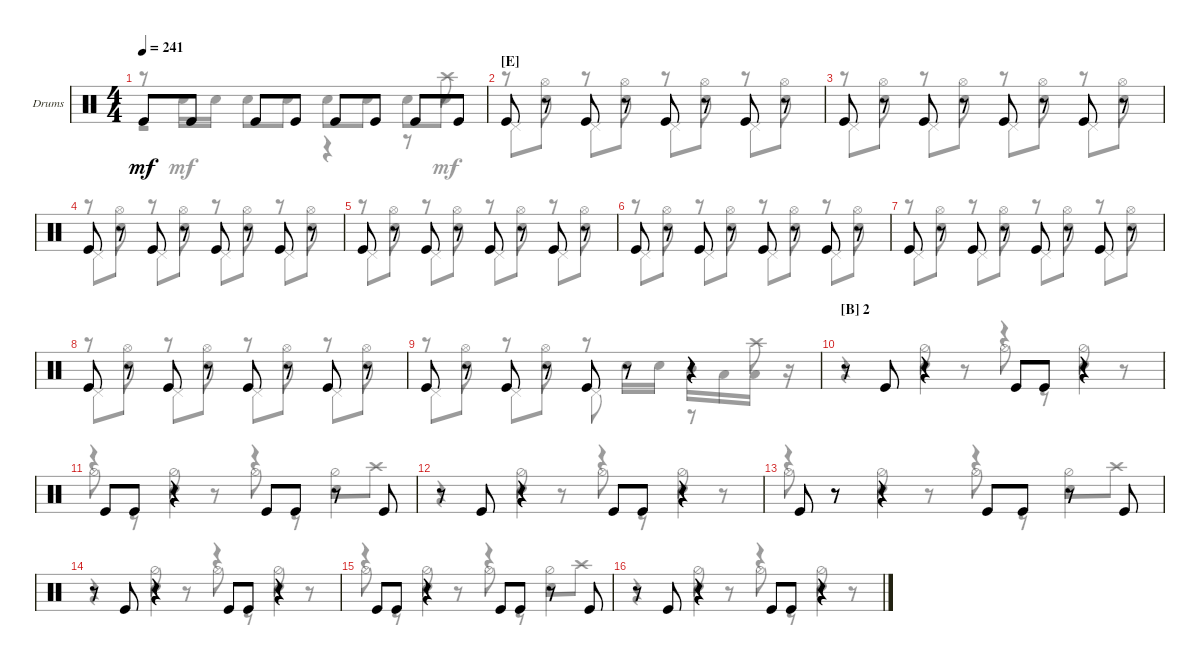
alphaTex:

\defaultSystemsLayout 4
\bracketExtendMode groupsimilarinstruments
\firstSystemTrackNameOrientation horizontal
\otherSystemsTrackNameOrientation horizontal
\track ("Drumkit" "Drums") {instrument percussion}
\staff {score}
\articulation defaults
\voice
\ts (4 4)
\tempo 241
\clef neutral
\ks c "Kick (hit)".8{dy mf} "Kick (hit)".8 "Kick (hit)".8 "Kick (hit)".8 "Kick (hit)".8 "Kick (hit)".8 "Kick (hit)".8 "Kick (hit)".8
|
\section ("E" "")
"Kick (hit)".8 r.8 "Kick (hit)".8 r.8 "Kick (hit)".8 r.8 "Kick (hit)".8 r.8 |
"Kick (hit)".8 r.8 "Kick (hit)".8 r.8 "Kick (hit)".8 r.8 "Kick (hit)".8 r.8 |
"Kick (hit)".8 r.8 "Kick (hit)".8 r.8 "Kick (hit)".8 r.8 "Kick (hit)".8 r.8 |
"Kick (hit)".8 r.8 "Kick (hit)".8 r.8 "Kick (hit)".8 r.8 "Kick (hit)".8 r.8 |
"Kick (hit)".8 r.8 "Kick (hit)".8 r.8 "Kick (hit)".8 r.8 "Kick (hit)".8 r.8 |
"Kick (hit)".8 r.8 "Kick (hit)".8 r.8 "Kick (hit)".8 r.8 "Kick (hit)".8 r.8 |
"Kick (hit)".8 r.8 "Kick (hit)".8 r.8 "Kick (hit)".8 r.8 "Kick (hit)".8 r.8 |
"Kick (hit)".8 r.8 "Kick (hit)".8 r.8 "Kick (hit)".8 r.8 r.4 |
\section ("B" "2")
r.8 "Kick (hit)".8 r.4 "Kick (hit)".8 "Kick (hit)".8 r.4 |
"Kick (hit)".8 "Kick (hit)".8 r.4 "Kick (hit)".8 "Kick (hit)".8 r.8 "Kick (hit)".8 |
r.8 "Kick (hit)".8 r.4 "Kick (hit)".8 "Kick (hit)".8 r.4 |
"Kick (hit)".8 r.8 r.4 "Kick (hit)".8 "Kick (hit)".8 r.8 "Kick (hit)".8 |
r.8 "Kick (hit)".8 r.4 "Kick (hit)".8 "Kick (hit)".8 r.4 |
"Kick (hit)".8 "Kick (hit)".8 r.4 "Kick (hit)".8 "Kick (hit)".8 r.8 "Kick (hit)".8 |
r.8 "Kick (hit)".8 r.4 "Kick (hit)".8 "Kick (hit)".8 r.4
\voice
\clef neutral
\ottava regular
\simile none
\ks c
r.8{dy mf} "Snare (hit) 2".16 "Snare (hit) 2".16 "Snare (hit) 2".8 "Snare (hit) 2".8 "Snare (hit) 2".8 "Snare (hit) 2".8 "Snare (hit) 2".8 "Snare (hit) 2".8 |
r.8 "Snare (hit) 2".8 r.8 "Snare (hit) 2".8 r.8 "Snare (hit) 2".8 r.8 "Snare (hit) 2".8 |
r.8 "Snare (hit) 2".8 r.8 "Snare (hit) 2".8 r.8 "Snare (hit) 2".8 r.8 "Snare (hit) 2".8 |
r.8 "Snare (hit) 2".8 r.8 "Snare (hit) 2".8 r.8 "Snare (hit) 2".8 r.8 "Snare (hit) 2".8 |
r.8 "Snare (hit) 2".8 r.8 "Snare (hit) 2".8 r.8 "Snare (hit) 2".8 r.8 "Snare (hit) 2".8 |
r.8 "Snare (hit) 2".8 r.8 "Snare (hit) 2".8 r.8 "Snare (hit) 2".8 r.8 "Snare (hit) 2".8 |
r.8 "Snare (hit) 2".8 r.8 "Snare (hit) 2".8 r.8 "Snare (hit) 2".8 r.8 "Snare (hit) 2".8 |
r.8 "Snare (hit) 2".8 r.8 "Snare (hit) 2".8 r.8 "Snare (hit) 2".8 r.8 "Snare (hit) 2".8 |
r.8 "Snare (hit) 2".8 r.8 "Snare (hit) 2".8 r.8 "Snare (hit) 2".16 "Snare (hit) 2".16 "Mid Tom (hit)".16 "Low Tom (hit)".16 "Low Tom (hit)".16 r.16 |
r.4 "Snare (hit) 2".4 r.4 "Snare (hit) 2".4 |
r.4 "Snare (hit) 2".4 r.4 "Snare (hit) 2".4 |
r.4 "Snare (hit) 2".4 r.4 "Snare (hit) 2".4 |
r.4 "Snare (hit) 2".4 r.4 "Snare (hit) 2".4 |
r.4 "Snare (hit) 2".4 r.4 "Snare (hit) 2".4 |
r.4 "Snare (hit) 2".4 r.4 "Snare (hit) 2".4 |
r.4 "Snare (hit) 2".4 r.4 "Snare (hit) 2".4
\voice
\clef neutral
\ottava regular
\simile none
\ks c
r.2{dy mf} r.4 r.8 "Crash high (hit)".8 |
"Pedal Hi-Hat (hit)".8 "Hi-Hat (open)".8 "Pedal Hi-Hat (hit)".8 "Hi-Hat (open)".8 "Pedal Hi-Hat (hit)".8 "Hi-Hat (open)".8 "Pedal Hi-Hat (hit)".8 "Hi-Hat (open)".8 |
"Pedal Hi-Hat (hit)".8 "Hi-Hat (open)".8 "Pedal Hi-Hat (hit)".8 "Hi-Hat (open)".8 "Pedal Hi-Hat (hit)".8 "Hi-Hat (open)".8 "Pedal Hi-Hat (hit)".8 "Hi-Hat (open)".8 |
"Pedal Hi-Hat (hit)".8 "Hi-Hat (open)".8 "Pedal Hi-Hat (hit)".8 "Hi-Hat (open)".8 "Pedal Hi-Hat (hit)".8 "Hi-Hat (open)".8 "Pedal Hi-Hat (hit)".8 "Hi-Hat (open)".8 |
"Pedal Hi-Hat (hit)".8 "Hi-Hat (open)".8 "Pedal Hi-Hat (hit)".8 "Hi-Hat (open)".8 "Pedal Hi-Hat (hit)".8 "Hi-Hat (open)".8 "Pedal Hi-Hat (hit)".8 "Hi-Hat (open)".8 |
"Pedal Hi-Hat (hit)".8 "Hi-Hat (open)".8 "Pedal Hi-Hat (hit)".8 "Hi-Hat (open)".8 "Pedal Hi-Hat (hit)".8 "Hi-Hat (open)".8 "Pedal Hi-Hat (hit)".8 "Hi-Hat (open)".8 |
"Pedal Hi-Hat (hit)".8 "Hi-Hat (open)".8 "Pedal Hi-Hat (hit)".8 "Hi-Hat (open)".8 "Pedal Hi-Hat (hit)".8 "Hi-Hat (open)".8 "Pedal Hi-Hat (hit)".8 "Hi-Hat (open)".8 |
"Pedal Hi-Hat (hit)".8 "Hi-Hat (open)".8 "Pedal Hi-Hat (hit)".8 "Hi-Hat (open)".8 "Pedal Hi-Hat (hit)".8 "Hi-Hat (open)".8 "Pedal Hi-Hat (hit)".8 "Hi-Hat (open)".8 |
"Pedal Hi-Hat (hit)".8 "Hi-Hat (open)".8 "Pedal Hi-Hat (hit)".8 "Hi-Hat (open)".8 "Pedal Hi-Hat (hit)".8 r.8 r.8 "Crash high (hit)".8 |
r.4 "Hi-Hat (half)".8 r.8 "Hi-Hat (half)".8 r.8 "Hi-Hat (half)".8 r.8 |
"Hi-Hat (half)".8 r.8 "Hi-Hat (half)".8 r.8 "Hi-Hat (half)".8 r.8 "Hi-Hat (half)".8 "Crash high (hit)".8 |
r.4 "Hi-Hat (half)".8 r.8 "Hi-Hat (half)".8 r.8 "Hi-Hat (half)".8 r.8 |
"Hi-Hat (half)".8 r.8 "Hi-Hat (half)".8 r.8 "Hi-Hat (half)".8 r.8 "Hi-Hat (half)".8 "Crash high (hit)".8 |
r.4 "Hi-Hat (half)".8 r.8 "Hi-Hat (half)".8 r.8 "Hi-Hat (half)".8 r.8 |
"Hi-Hat (half)".8 r.8 "Hi-Hat (half)".8 r.8 "Hi-Hat (half)".8 r.8 "Hi-Hat (half)".8 "Crash high (hit)".8 |
r.4 "Hi-Hat (half)".8 r.8 "Hi-Hat (half)".8 r.8 "Hi-Hat (half)".8 r.8
